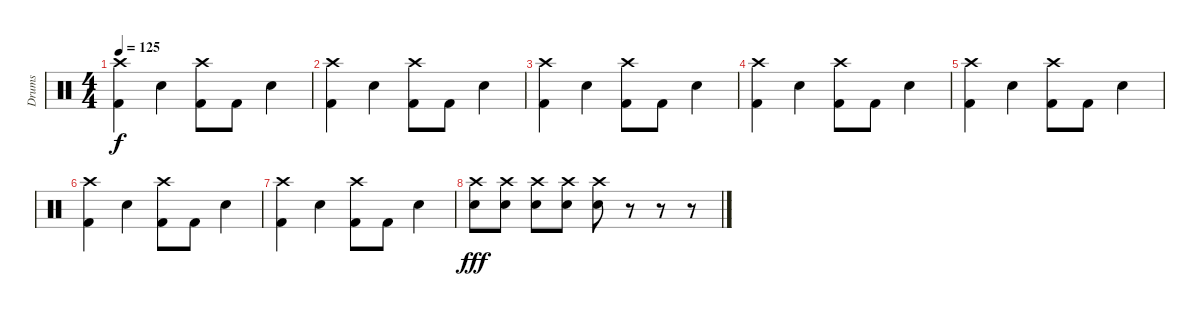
\track ("Drums" "Drums") {instrument percussion}
\staff {score}
\articulation defaults
\ts (4 4)
\tempo 125
\clef neutral
\ks c
("Crash high (hit)" "Kick (hit) 2").4{dy f} "Snare (hit) 2".4 ("Crash high (hit)" "Kick (hit) 2").8 "Kick (hit) 2".8 "Snare (hit) 2".4 |
("Crash high (hit)" "Kick (hit) 2").4 "Snare (hit) 2".4 ("Crash high (hit)" "Kick (hit) 2").8 "Kick (hit) 2".8 "Snare (hit) 2".4 |
("Crash high (hit)" "Kick (hit) 2").4 "Snare (hit) 2".4 ("Crash high (hit)" "Kick (hit) 2").8 "Kick (hit) 2".8 "Snare (hit) 2".4 |
("Crash high (hit)" "Kick (hit) 2").4 "Snare (hit) 2".4 ("Crash high (hit)" "Kick (hit) 2").8 "Kick (hit) 2".8 "Snare (hit) 2".4 |
("Crash high (hit)" "Kick (hit) 2").4 "Snare (hit) 2".4 ("Crash high (hit)" "Kick (hit) 2").8 "Kick (hit) 2".8 "Snare (hit) 2".4 |
("Crash high (hit)" "Kick (hit) 2").4 "Snare (hit) 2".4 ("Crash high (hit)" "Kick (hit) 2").8 "Kick (hit) 2".8 "Snare (hit) 2".4 |
("Crash high (hit)" "Kick (hit) 2").4 "Snare (hit) 2".4 ("Crash high (hit)" "Kick (hit) 2").8 "Kick (hit) 2".8 "Snare (hit) 2".4 |
("Crash high (hit)" "Snare (hit) 2").8{dy fff} ("Crash high (hit)" "Snare (hit) 2").8 ("Crash high (hit)" "Snare (hit) 2").8 ("Crash high (hit)" "Snare (hit) 2").8 ("Crash high (hit)" "Snare (hit) 2").8 r.8 r.8 r.8
